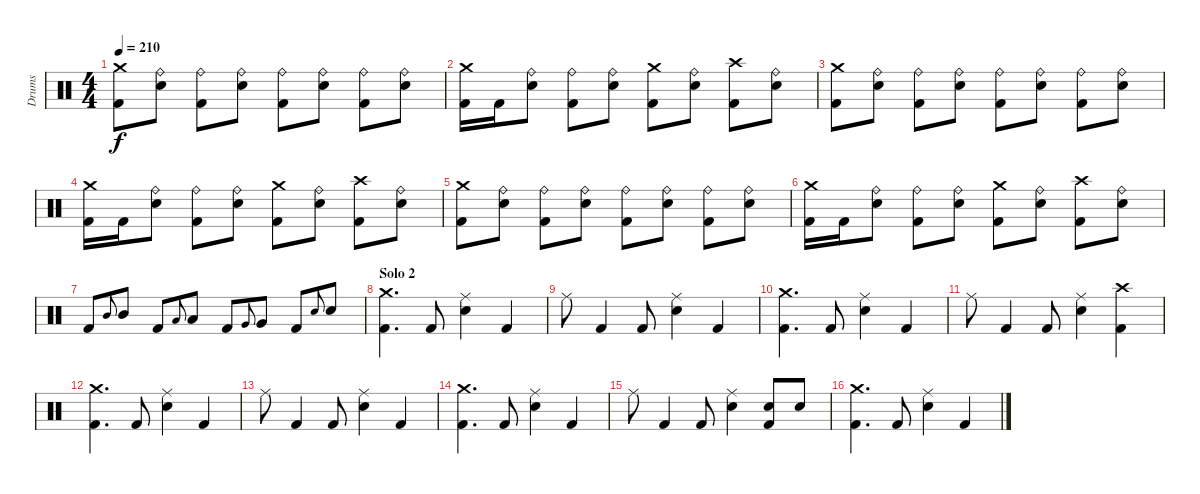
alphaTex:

\track ("Drums" "Drums") {instrument percussion}
\staff {score}
\articulation defaults
\ts (4 4)
\tempo 210
\clef neutral
\ks c
("Kick (hit) 2" "Crash medium (hit)").8{dy f} ("Snare (hit) 2" "Ride (bell)").8 ("Kick (hit) 2" "Ride (bell)").8 ("Snare (hit) 2" "Ride (bell)").8 ("Kick (hit) 2" "Ride (bell)").8 ("Snare (hit) 2" "Ride (bell)").8 ("Kick (hit) 2" "Ride (bell)").8 ("Snare (hit) 2" "Ride (bell)").8 |
("Kick (hit) 2" "Crash medium (hit)").16 "Kick (hit) 2".16 ("Snare (hit) 2" "Ride (bell)").8 ("Kick (hit) 2" "Ride (bell)").8 ("Snare (hit) 2" "Ride (bell)").8 ("Kick (hit) 2" "Crash medium (hit)").8 ("Snare (hit) 2" "Ride (bell)").8 ("Kick (hit) 2" "Crash high (hit)").8 ("Snare (hit) 2" "Ride (bell)").8 |
("Kick (hit) 2" "Crash medium (hit)").8 ("Snare (hit) 2" "Ride (bell)").8 ("Kick (hit) 2" "Ride (bell)").8 ("Snare (hit) 2" "Ride (bell)").8 ("Kick (hit) 2" "Ride (bell)").8 ("Snare (hit) 2" "Ride (bell)").8 ("Kick (hit) 2" "Ride (bell)").8 ("Snare (hit) 2" "Ride (bell)").8 |
("Kick (hit) 2" "Crash medium (hit)").16 "Kick (hit) 2".16 ("Snare (hit) 2" "Ride (bell)").8 ("Kick (hit) 2" "Ride (bell)").8 ("Snare (hit) 2" "Ride (bell)").8 ("Kick (hit) 2" "Crash medium (hit)").8 ("Snare (hit) 2" "Ride (bell)").8 ("Kick (hit) 2" "Crash high (hit)").8 ("Snare (hit) 2" "Ride (bell)").8 |
("Kick (hit) 2" "Crash medium (hit)").8 ("Snare (hit) 2" "Ride (bell)").8 ("Kick (hit) 2" "Ride (bell)").8 ("Snare (hit) 2" "Ride (bell)").8 ("Kick (hit) 2" "Ride (bell)").8 ("Snare (hit) 2" "Ride (bell)").8 ("Kick (hit) 2" "Ride (bell)").8 ("Snare (hit) 2" "Ride (bell)").8 |
("Kick (hit) 2" "Crash medium (hit)").16 "Kick (hit) 2".16 ("Snare (hit) 2" "Ride (bell)").8 ("Kick (hit) 2" "Ride (bell)").8 ("Snare (hit) 2" "Ride (bell)").8 ("Kick (hit) 2" "Crash medium (hit)").8 ("Snare (hit) 2" "Ride (bell)").8 ("Kick (hit) 2" "Crash high (hit)").8 ("Snare (hit) 2" "Ride (bell)").8 |
"Kick (hit) 2".8 "Mid Tom (hit)".8{gr onbeat} "Mid Tom (hit)".8 "Kick (hit) 2".8 "Low Tom (hit)".8{gr onbeat} "Low Tom (hit)".8 "Kick (hit) 2".8 "Very Low Tom (hit)".8{gr onbeat} "Very Low Tom (hit)".8 "Kick (hit) 2".8 "Snare (hit) 2".8{gr onbeat} "Snare (hit) 2".8 |
\section ("" "Solo 2")
("Kick (hit) 2" "Crash medium (hit)").4{d} "Kick (hit) 2".8 ("Snare (hit) 2" "Ride (middle)").4 "Kick (hit) 2".4 |
"Ride (middle)".8 "Kick (hit) 2".4 "Kick (hit) 2".8 ("Snare (hit) 2" "Ride (middle)").4 "Kick (hit) 2".4 |
("Kick (hit) 2" "Crash medium (hit)").4{d} "Kick (hit) 2".8 ("Snare (hit) 2" "Ride (middle)").4 "Kick (hit) 2".4 |
"Ride (middle)".8 "Kick (hit) 2".4 "Kick (hit) 2".8 ("Snare (hit) 2" "Ride (middle)").4 ("Kick (hit) 2" "Crash high (hit)").4 |
("Kick (hit) 2" "Crash medium (hit)").4{d} "Kick (hit) 2".8 ("Snare (hit) 2" "Ride (middle)").4 "Kick (hit) 2".4 |
"Ride (middle)".8 "Kick (hit) 2".4 "Kick (hit) 2".8 ("Snare (hit) 2" "Ride (middle)").4 "Kick (hit) 2".4 |
("Kick (hit) 2" "Crash medium (hit)").4{d} "Kick (hit) 2".8 ("Snare (hit) 2" "Ride (middle)").4 "Kick (hit) 2".4 |
"Ride (middle)".8 "Kick (hit) 2".4 "Kick (hit) 2".8 ("Snare (hit) 2" "Ride (middle)").4 ("Kick (hit) 2" "Snare (hit) 2").8 "Snare (hit) 2".8 |
("Kick (hit) 2" "Crash medium (hit)").4{d} "Kick (hit) 2".8 ("Snare (hit) 2" "Ride (middle)").4 "Kick (hit) 2".4
